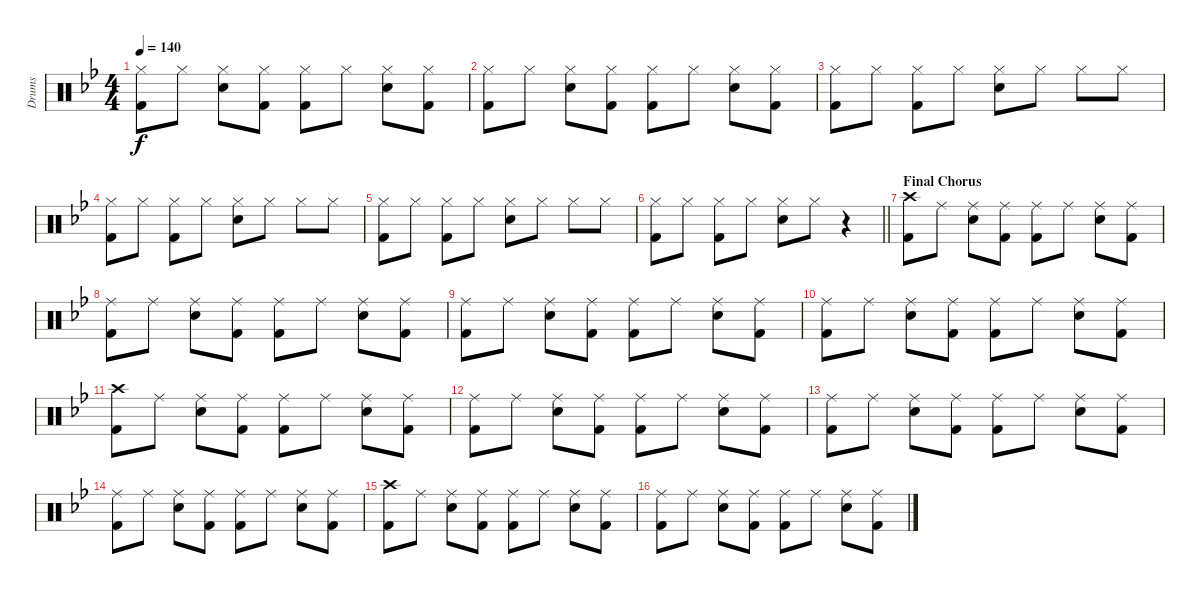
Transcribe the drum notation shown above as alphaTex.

\track ("Drums" "Drums") {instrument percussion}
\staff {score}
\articulation defaults
\ts (4 4)
\tempo 140
\clef neutral
\ks bb
("Hi-Hat (closed)" "Kick (hit) 2").8{dy f} "Hi-Hat (closed)".8 ("Hi-Hat (closed)" "Snare (hit) 2").8 ("Hi-Hat (closed)" "Kick (hit) 2").8 ("Hi-Hat (closed)" "Kick (hit) 2").8 "Hi-Hat (closed)".8 ("Hi-Hat (closed)" "Snare (hit) 2").8 ("Hi-Hat (closed)" "Kick (hit) 2").8 |
("Hi-Hat (closed)" "Kick (hit) 2").8 "Hi-Hat (closed)".8 ("Hi-Hat (closed)" "Snare (hit) 2").8 ("Hi-Hat (closed)" "Kick (hit) 2").8 ("Hi-Hat (closed)" "Kick (hit) 2").8 "Hi-Hat (closed)".8 ("Hi-Hat (closed)" "Snare (hit) 2").8 ("Hi-Hat (closed)" "Kick (hit) 2").8 |
("Hi-Hat (closed)" "Kick (hit) 2").8 "Hi-Hat (closed)".8 ("Hi-Hat (closed)" "Kick (hit) 2").8 "Hi-Hat (closed)".8 ("Hi-Hat (closed)" "Snare (hit) 2").8 "Hi-Hat (closed)".8 "Hi-Hat (closed)".8 "Hi-Hat (closed)".8 |
("Hi-Hat (closed)" "Kick (hit) 2").8 "Hi-Hat (closed)".8 ("Hi-Hat (closed)" "Kick (hit) 2").8 "Hi-Hat (closed)".8 ("Hi-Hat (closed)" "Snare (hit) 2").8 "Hi-Hat (closed)".8 "Hi-Hat (closed)".8 "Hi-Hat (closed)".8 |
("Hi-Hat (closed)" "Kick (hit) 2").8 "Hi-Hat (closed)".8 ("Hi-Hat (closed)" "Kick (hit) 2").8 "Hi-Hat (closed)".8 ("Hi-Hat (closed)" "Snare (hit) 2").8 "Hi-Hat (closed)".8 "Hi-Hat (closed)".8 "Hi-Hat (closed)".8 |
\barLineRight lightlight
("Hi-Hat (closed)" "Kick (hit) 2").8 "Hi-Hat (closed)".8 ("Hi-Hat (closed)" "Kick (hit) 2").8 "Hi-Hat (closed)".8 ("Hi-Hat (closed)" "Snare (hit) 2").8 "Hi-Hat (closed)".8 r.4 |
\section ("" "Final Chorus")
("Crash high (hit)" "Kick (hit) 2").8 "Ride (middle)".8 ("Ride (middle)" "Snare (hit) 2").8 ("Ride (middle)" "Kick (hit) 2").8 ("Ride (middle)" "Kick (hit) 2").8 "Ride (middle)".8 ("Ride (middle)" "Snare (hit) 2").8 ("Ride (middle)" "Kick (hit) 2").8 |
("Ride (middle)" "Kick (hit) 2").8 "Ride (middle)".8 ("Ride (middle)" "Snare (hit) 2").8 ("Ride (middle)" "Kick (hit) 2").8 ("Ride (middle)" "Kick (hit) 2").8 "Ride (middle)".8 ("Ride (middle)" "Snare (hit) 2").8 ("Ride (middle)" "Kick (hit) 2").8 |
("Ride (middle)" "Kick (hit) 2").8 "Ride (middle)".8 ("Ride (middle)" "Snare (hit) 2").8 ("Ride (middle)" "Kick (hit) 2").8 ("Ride (middle)" "Kick (hit) 2").8 "Ride (middle)".8 ("Ride (middle)" "Snare (hit) 2").8 ("Ride (middle)" "Kick (hit) 2").8 |
("Ride (middle)" "Kick (hit) 2").8 "Ride (middle)".8 ("Ride (middle)" "Snare (hit) 2").8 ("Ride (middle)" "Kick (hit) 2").8 ("Ride (middle)" "Kick (hit) 2").8 "Ride (middle)".8 ("Ride (middle)" "Snare (hit) 2").8 ("Ride (middle)" "Kick (hit) 2").8 |
("Crash high (hit)" "Kick (hit) 2").8 "Ride (middle)".8 ("Ride (middle)" "Snare (hit) 2").8 ("Ride (middle)" "Kick (hit) 2").8 ("Ride (middle)" "Kick (hit) 2").8 "Ride (middle)".8 ("Ride (middle)" "Snare (hit) 2").8 ("Ride (middle)" "Kick (hit) 2").8 |
("Ride (middle)" "Kick (hit) 2").8 "Ride (middle)".8 ("Ride (middle)" "Snare (hit) 2").8 ("Ride (middle)" "Kick (hit) 2").8 ("Ride (middle)" "Kick (hit) 2").8 "Ride (middle)".8 ("Ride (middle)" "Snare (hit) 2").8 ("Ride (middle)" "Kick (hit) 2").8 |
("Ride (middle)" "Kick (hit) 2").8 "Ride (middle)".8 ("Ride (middle)" "Snare (hit) 2").8 ("Ride (middle)" "Kick (hit) 2").8 ("Ride (middle)" "Kick (hit) 2").8 "Ride (middle)".8 ("Ride (middle)" "Snare (hit) 2").8 ("Ride (middle)" "Kick (hit) 2").8 |
("Ride (middle)" "Kick (hit) 2").8 "Ride (middle)".8 ("Ride (middle)" "Snare (hit) 2").8 ("Ride (middle)" "Kick (hit) 2").8 ("Ride (middle)" "Kick (hit) 2").8 "Ride (middle)".8 ("Ride (middle)" "Snare (hit) 2").8 ("Ride (middle)" "Kick (hit) 2").8 |
("Crash high (hit)" "Kick (hit) 2").8 "Ride (middle)".8 ("Ride (middle)" "Snare (hit) 2").8 ("Ride (middle)" "Kick (hit) 2").8 ("Ride (middle)" "Kick (hit) 2").8 "Ride (middle)".8 ("Ride (middle)" "Snare (hit) 2").8 ("Ride (middle)" "Kick (hit) 2").8 |
("Ride (middle)" "Kick (hit) 2").8 "Ride (middle)".8 ("Ride (middle)" "Snare (hit) 2").8 ("Ride (middle)" "Kick (hit) 2").8 ("Ride (middle)" "Kick (hit) 2").8 "Ride (middle)".8 ("Ride (middle)" "Snare (hit) 2").8 ("Ride (middle)" "Kick (hit) 2").8
